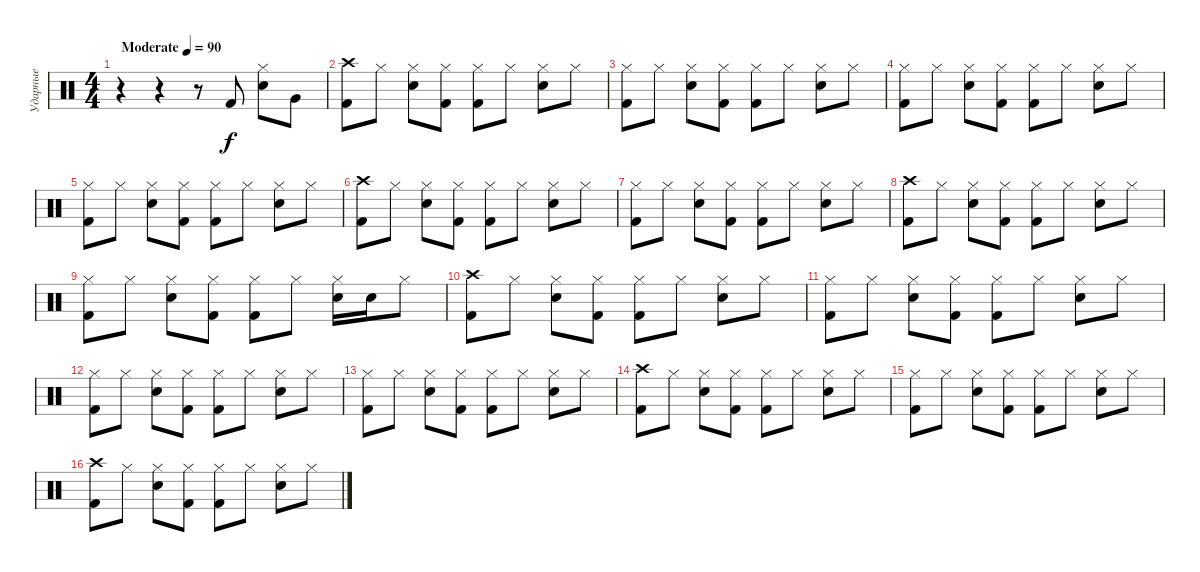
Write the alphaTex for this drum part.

\track ("Ударные" "Ударные") {instrument percussion}
\staff {score}
\articulation defaults
\ts (4 4)
\tempo (90 "Moderate")
\clef neutral
\ks c
r.4{dy f} r.4 r.8 "Kick (hit) 2".8 ("Hi-Hat (closed)" "Snare (hit) 2").8 "Very Low Tom (hit)".8 |
("Crash high (hit)" "Kick (hit) 2").8 "Hi-Hat (closed)".8 ("Hi-Hat (closed)" "Snare (hit) 2").8 ("Hi-Hat (closed)" "Kick (hit) 2").8 ("Hi-Hat (closed)" "Kick (hit) 2").8 "Hi-Hat (closed)".8 ("Hi-Hat (closed)" "Snare (hit) 2").8 "Hi-Hat (closed)".8 |
("Hi-Hat (closed)" "Kick (hit) 2").8 "Hi-Hat (closed)".8 ("Hi-Hat (closed)" "Snare (hit) 2").8 ("Hi-Hat (closed)" "Kick (hit) 2").8 ("Hi-Hat (closed)" "Kick (hit) 2").8 "Hi-Hat (closed)".8 ("Hi-Hat (closed)" "Snare (hit) 2").8 "Hi-Hat (closed)".8 |
("Hi-Hat (closed)" "Kick (hit) 2").8 "Hi-Hat (closed)".8 ("Hi-Hat (closed)" "Snare (hit) 2").8 ("Hi-Hat (closed)" "Kick (hit) 2").8 ("Hi-Hat (closed)" "Kick (hit) 2").8 "Hi-Hat (closed)".8 ("Hi-Hat (closed)" "Snare (hit) 2").8 "Hi-Hat (closed)".8 |
("Hi-Hat (closed)" "Kick (hit) 2").8 "Hi-Hat (closed)".8 ("Hi-Hat (closed)" "Snare (hit) 2").8 ("Hi-Hat (closed)" "Kick (hit) 2").8 ("Hi-Hat (closed)" "Kick (hit) 2").8 "Hi-Hat (closed)".8 ("Hi-Hat (closed)" "Snare (hit) 2").8 "Hi-Hat (closed)".8 |
("Crash high (hit)" "Kick (hit) 2").8 "Hi-Hat (closed)".8 ("Hi-Hat (closed)" "Snare (hit) 2").8 ("Hi-Hat (closed)" "Kick (hit) 2").8 ("Hi-Hat (closed)" "Kick (hit) 2").8 "Hi-Hat (closed)".8 ("Hi-Hat (closed)" "Snare (hit) 2").8 "Hi-Hat (closed)".8 |
("Hi-Hat (closed)" "Kick (hit) 2").8 "Hi-Hat (closed)".8 ("Hi-Hat (closed)" "Snare (hit) 2").8 ("Hi-Hat (closed)" "Kick (hit) 2").8 ("Hi-Hat (closed)" "Kick (hit) 2").8 "Hi-Hat (closed)".8 ("Hi-Hat (closed)" "Snare (hit) 2").8 "Hi-Hat (closed)".8 |
("Crash high (hit)" "Kick (hit) 2").8 "Hi-Hat (closed)".8 ("Hi-Hat (closed)" "Snare (hit) 2").8 ("Hi-Hat (closed)" "Kick (hit) 2").8 ("Hi-Hat (closed)" "Kick (hit) 2").8 "Hi-Hat (closed)".8 ("Hi-Hat (closed)" "Snare (hit) 2").8 "Hi-Hat (closed)".8 |
("Hi-Hat (closed)" "Kick (hit) 2").8 "Hi-Hat (closed)".8 ("Hi-Hat (closed)" "Snare (hit) 2").8 ("Hi-Hat (closed)" "Kick (hit) 2").8 ("Hi-Hat (closed)" "Kick (hit) 2").8 "Hi-Hat (closed)".8 ("Hi-Hat (closed)" "Snare (hit) 2").16 "Snare (hit) 2".16 "Hi-Hat (closed)".8 |
("Crash high (hit)" "Kick (hit) 2").8 "Hi-Hat (closed)".8 ("Hi-Hat (closed)" "Snare (hit) 2").8 ("Hi-Hat (closed)" "Kick (hit) 2").8 ("Hi-Hat (closed)" "Kick (hit) 2").8 "Hi-Hat (closed)".8 ("Hi-Hat (closed)" "Snare (hit) 2").8 "Hi-Hat (closed)".8 |
("Hi-Hat (closed)" "Kick (hit) 2").8 "Hi-Hat (closed)".8 ("Hi-Hat (closed)" "Snare (hit) 2").8 ("Hi-Hat (closed)" "Kick (hit) 2").8 ("Hi-Hat (closed)" "Kick (hit) 2").8 "Hi-Hat (closed)".8 ("Hi-Hat (closed)" "Snare (hit) 2").8 "Hi-Hat (closed)".8 |
("Hi-Hat (closed)" "Kick (hit) 2").8 "Hi-Hat (closed)".8 ("Hi-Hat (closed)" "Snare (hit) 2").8 ("Hi-Hat (closed)" "Kick (hit) 2").8 ("Hi-Hat (closed)" "Kick (hit) 2").8 "Hi-Hat (closed)".8 ("Hi-Hat (closed)" "Snare (hit) 2").8 "Hi-Hat (closed)".8 |
("Hi-Hat (closed)" "Kick (hit) 2").8 "Hi-Hat (closed)".8 ("Hi-Hat (closed)" "Snare (hit) 2").8 ("Hi-Hat (closed)" "Kick (hit) 2").8 ("Hi-Hat (closed)" "Kick (hit) 2").8 "Hi-Hat (closed)".8 ("Hi-Hat (closed)" "Snare (hit) 2").8 "Hi-Hat (closed)".8 |
("Crash high (hit)" "Kick (hit) 2").8 "Hi-Hat (closed)".8 ("Hi-Hat (closed)" "Snare (hit) 2").8 ("Hi-Hat (closed)" "Kick (hit) 2").8 ("Hi-Hat (closed)" "Kick (hit) 2").8 "Hi-Hat (closed)".8 ("Hi-Hat (closed)" "Snare (hit) 2").8 "Hi-Hat (closed)".8 |
("Hi-Hat (closed)" "Kick (hit) 2").8 "Hi-Hat (closed)".8 ("Hi-Hat (closed)" "Snare (hit) 2").8 ("Hi-Hat (closed)" "Kick (hit) 2").8 ("Hi-Hat (closed)" "Kick (hit) 2").8 "Hi-Hat (closed)".8 ("Hi-Hat (closed)" "Snare (hit) 2").8 "Hi-Hat (closed)".8 |
("Crash high (hit)" "Kick (hit) 2").8 "Hi-Hat (closed)".8 ("Hi-Hat (closed)" "Snare (hit) 2").8 ("Hi-Hat (closed)" "Kick (hit) 2").8 ("Hi-Hat (closed)" "Kick (hit) 2").8 "Hi-Hat (closed)".8 ("Hi-Hat (closed)" "Snare (hit) 2").8 "Hi-Hat (closed)".8
